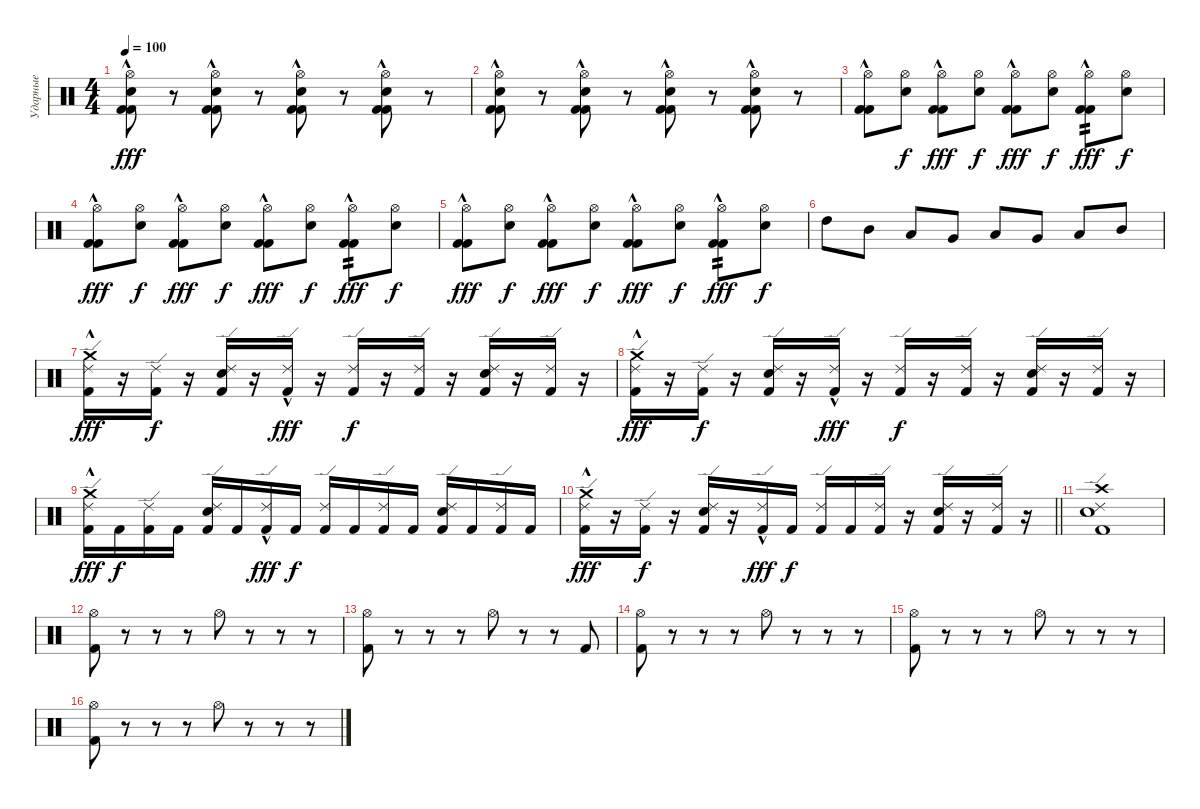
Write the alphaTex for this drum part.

\track ("Ударные" "Ударные") {instrument percussion}
\staff {score}
\articulation defaults
\ts (4 4)
\tempo 100
\clef neutral
\ks c
("Hi-Hat (open)" "Kick (hit) 2"{hac} "Kick (hit) 2" "Snare (hit) 2").8{dy fff} r.8 ("Hi-Hat (open)" "Kick (hit) 2"{hac} "Kick (hit) 2" "Snare (hit) 2").8 r.8 ("Hi-Hat (open)" "Kick (hit) 2"{hac} "Kick (hit) 2" "Snare (hit) 2").8 r.8 ("Hi-Hat (open)" "Kick (hit) 2"{hac} "Kick (hit) 2" "Snare (hit) 2").8 r.8 |
("Hi-Hat (open)" "Kick (hit) 2"{hac} "Kick (hit) 2" "Snare (hit) 2").8 r.8 ("Hi-Hat (open)" "Kick (hit) 2"{hac} "Kick (hit) 2" "Snare (hit) 2").8 r.8 ("Hi-Hat (open)" "Kick (hit) 2"{hac} "Kick (hit) 2" "Snare (hit) 2").8 r.8 ("Hi-Hat (open)" "Kick (hit) 2"{hac} "Kick (hit) 2" "Snare (hit) 2").8 r.8 |
("Hi-Hat (open)" "Kick (hit) 2"{hac} "Kick (hit) 2").8 ("Hi-Hat (open)" "Electric Snare (hit)").8{dy f} ("Hi-Hat (open)" "Kick (hit) 2"{hac} "Kick (hit) 2").8{dy fff} ("Hi-Hat (open)" "Electric Snare (hit)").8{dy f} ("Hi-Hat (open)" "Kick (hit) 2"{hac} "Kick (hit) 2").8{dy fff} ("Hi-Hat (open)" "Electric Snare (hit)").8{dy f} ("Hi-Hat (open)" "Kick (hit) 2"{hac} "Kick (hit) 2").8{tp 2 dy fff} ("Hi-Hat (open)" "Electric Snare (hit)").8{dy f} |
("Hi-Hat (open)" "Kick (hit) 2"{hac} "Kick (hit) 2").8{dy fff} ("Hi-Hat (open)" "Electric Snare (hit)").8{dy f} ("Hi-Hat (open)" "Kick (hit) 2"{hac} "Kick (hit) 2").8{dy fff} ("Hi-Hat (open)" "Electric Snare (hit)").8{dy f} ("Hi-Hat (open)" "Kick (hit) 2"{hac} "Kick (hit) 2").8{dy fff} ("Hi-Hat (open)" "Electric Snare (hit)").8{dy f} ("Hi-Hat (open)" "Kick (hit) 2"{hac} "Kick (hit) 2").8{tp 2 dy fff} ("Hi-Hat (open)" "Electric Snare (hit)").8{dy f} |
("Hi-Hat (open)" "Kick (hit) 2"{hac} "Kick (hit) 2").8{dy fff} ("Hi-Hat (open)" "Electric Snare (hit)").8{dy f} ("Hi-Hat (open)" "Kick (hit) 2"{hac} "Kick (hit) 2").8{dy fff} ("Hi-Hat (open)" "Electric Snare (hit)").8{dy f} ("Hi-Hat (open)" "Kick (hit) 2"{hac} "Kick (hit) 2").8{dy fff} ("Hi-Hat (open)" "Electric Snare (hit)").8{dy f} ("Hi-Hat (open)" "Kick (hit) 2"{hac} "Kick (hit) 2").8{tp 2 dy fff} ("Hi-Hat (open)" "Electric Snare (hit)").8{dy f} |
"High Tom (hit)".8 "Mid Tom (hit)".8 "Low Tom (hit)".8 "Very Low Tom (hit)".8 "Low Floor Tom (hit)".8 "Very Low Tom (hit)".8 "Low Tom (hit)".8 "Mid Tom (hit)".8 |
("Ride (edge) 2" "Crash medium (hit)" "Kick (hit) 2"{hac}).16{dy fff} r.16 ("Ride (edge) 2" "Kick (hit) 2").16{dy f} r.16 ("Ride (edge) 2" "Snare (hit) 2" "Kick (hit) 2").16 r.16 ("Ride (edge) 2" "Kick (hit) 2"{hac}).16{dy fff} r.16 ("Ride (edge) 2" "Kick (hit) 2").16{dy f} r.16 ("Ride (edge) 2" "Kick (hit) 2").16 r.16 ("Ride (edge) 2" "Snare (hit) 2" "Kick (hit) 2").16 r.16 ("Ride (edge) 2" "Kick (hit) 2").16 r.16 |
("Ride (edge) 2" "Crash medium (hit)" "Kick (hit) 2"{hac}).16{dy fff} r.16 ("Ride (edge) 2" "Kick (hit) 2").16{dy f} r.16 ("Ride (edge) 2" "Snare (hit) 2" "Kick (hit) 2").16 r.16 ("Ride (edge) 2" "Kick (hit) 2"{hac}).16{dy fff} r.16 ("Ride (edge) 2" "Kick (hit) 2").16{dy f} r.16 ("Ride (edge) 2" "Kick (hit) 2").16 r.16 ("Ride (edge) 2" "Snare (hit) 2" "Kick (hit) 2").16 r.16 ("Ride (edge) 2" "Kick (hit) 2").16 r.16 |
("Ride (edge) 2" "Crash medium (hit)" "Kick (hit) 2"{hac}).16{dy fff} "Kick (hit) 2".16{dy f} ("Ride (edge) 2" "Kick (hit) 2").16 "Kick (hit) 2".16 ("Ride (edge) 2" "Snare (hit) 2" "Kick (hit) 2").16 "Kick (hit) 2".16 ("Ride (edge) 2" "Kick (hit) 2"{hac}).16{dy fff} "Kick (hit) 2".16{dy f} ("Ride (edge) 2" "Kick (hit) 2").16 "Kick (hit) 2".16 ("Ride (edge) 2" "Kick (hit) 2").16 "Kick (hit) 2".16 ("Ride (edge) 2" "Snare (hit) 2" "Kick (hit) 2").16 "Kick (hit) 2".16 ("Ride (edge) 2" "Kick (hit) 2").16 "Kick (hit) 2".16 |
\barLineRight lightlight
("Ride (edge) 2" "Crash medium (hit)" "Kick (hit) 2"{hac}).16{dy fff} r.16 ("Ride (edge) 2" "Kick (hit) 2").16{dy f} r.16 ("Ride (edge) 2" "Snare (hit) 2" "Kick (hit) 2").16 r.16 ("Ride (edge) 2" "Kick (hit) 2"{hac}).16{dy fff} "Kick (hit) 2".16{dy f} ("Ride (edge) 2" "Kick (hit) 2").16 "Kick (hit) 2".16 ("Ride (edge) 2" "Kick (hit) 2").16 r.16 ("Ride (edge) 2" "Snare (hit) 2" "Kick (hit) 2").16 r.16 ("Ride (edge) 2" "Kick (hit) 2").16 r.16 |
("Ride (edge) 2" "Snare (hit) 2" "Kick (hit) 2" "Crash high (hit)").1 |
("Kick (hit) 2" "Hi-Hat (open)").8 r.8 r.8 r.8 "Hi-Hat (open)".8 r.8 r.8 r.8 |
("Kick (hit) 2" "Hi-Hat (open)").8 r.8 r.8 r.8 "Hi-Hat (open)".8 r.8 r.8 "Kick (hit) 2".8 |
("Kick (hit) 2" "Hi-Hat (open)").8 r.8 r.8 r.8 "Hi-Hat (open)".8 r.8 r.8 r.8 |
("Kick (hit) 2" "Hi-Hat (open)").8 r.8 r.8 r.8 "Hi-Hat (open)".8 r.8 r.8 r.8 |
("Kick (hit) 2" "Hi-Hat (open)").8 r.8 r.8 r.8 "Hi-Hat (open)".8 r.8 r.8 r.8
